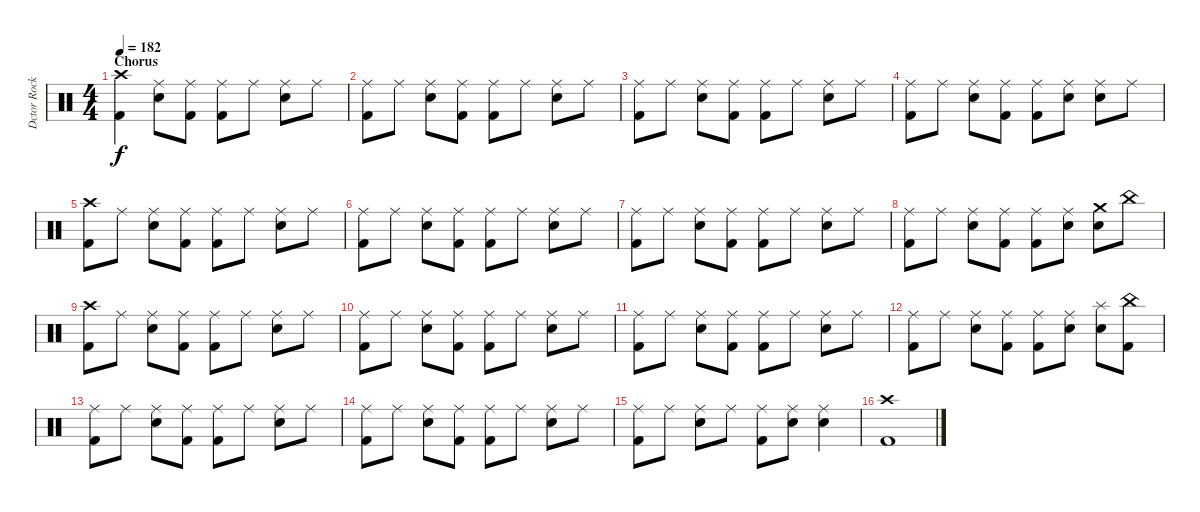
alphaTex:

\track ("Dctor Rock" "Dctor Rock") {instrument percussion}
\staff {score}
\articulation defaults
\ts (4 4)
\section ("" "Chorus")
\tempo 182
\clef neutral
\ks c
("Crash high (hit)" "Kick (hit) 2").4{dy f} ("Ride (middle)" "Snare (hit) 2").8 ("Ride (middle)" "Kick (hit) 2").8 ("Ride (middle)" "Kick (hit) 2").8 "Ride (middle)".8 ("Ride (middle)" "Snare (hit) 2").8 "Ride (middle)".8 |
("Ride (middle)" "Kick (hit) 2").8 "Ride (middle)".8 ("Ride (middle)" "Snare (hit) 2").8 ("Ride (middle)" "Kick (hit) 2").8 ("Ride (middle)" "Kick (hit) 2").8 "Ride (middle)".8 ("Ride (middle)" "Snare (hit) 2").8 "Ride (middle)".8 |
("Ride (middle)" "Kick (hit) 2").8 "Ride (middle)".8 ("Ride (middle)" "Snare (hit) 2").8 ("Ride (middle)" "Kick (hit) 2").8 ("Ride (middle)" "Kick (hit) 2").8 "Ride (middle)".8 ("Ride (middle)" "Snare (hit) 2").8 "Ride (middle)".8 |
("Ride (middle)" "Kick (hit) 2").8 "Ride (middle)".8 ("Ride (middle)" "Snare (hit) 2").8 ("Ride (middle)" "Kick (hit) 2").8 ("Ride (middle)" "Kick (hit) 2").8 ("Ride (middle)" "Snare (hit) 2").8 ("Ride (middle)" "Snare (hit) 2").8 "Ride (middle)".8 |
("Crash high (hit)" "Kick (hit) 2").8 "Ride (middle)".8 ("Ride (middle)" "Snare (hit) 2").8 ("Ride (middle)" "Kick (hit) 2").8 ("Ride (middle)" "Kick (hit) 2").8 "Ride (middle)".8 ("Ride (middle)" "Snare (hit) 2").8 "Ride (middle)".8 |
("Ride (middle)" "Kick (hit) 2").8 "Ride (middle)".8 ("Ride (middle)" "Snare (hit) 2").8 ("Ride (middle)" "Kick (hit) 2").8 ("Ride (middle)" "Kick (hit) 2").8 "Ride (middle)".8 ("Ride (middle)" "Snare (hit) 2").8 "Ride (middle)".8 |
("Ride (middle)" "Kick (hit) 2").8 "Ride (middle)".8 ("Ride (middle)" "Snare (hit) 2").8 ("Ride (middle)" "Kick (hit) 2").8 ("Ride (middle)" "Kick (hit) 2").8 "Ride (middle)".8 ("Ride (middle)" "Snare (hit) 2").8 "Ride (middle)".8 |
("Ride (middle)" "Kick (hit) 2").8 "Ride (middle)".8 ("Ride (middle)" "Snare (hit) 2").8 ("Ride (middle)" "Kick (hit) 2").8 ("Ride (middle)" "Kick (hit) 2").8 ("Ride (middle)" "Snare (hit) 2").8 ("Crash medium (hit)" "Snare (hit) 2").8 "China (hit)".8 |
("Crash high (hit)" "Kick (hit) 2").8 "Ride (middle)".8 ("Ride (middle)" "Snare (hit) 2").8 ("Ride (middle)" "Kick (hit) 2").8 ("Ride (middle)" "Kick (hit) 2").8 "Ride (middle)".8 ("Ride (middle)" "Snare (hit) 2").8 "Ride (middle)".8 |
("Ride (middle)" "Kick (hit) 2").8 "Ride (middle)".8 ("Ride (middle)" "Snare (hit) 2").8 ("Ride (middle)" "Kick (hit) 2").8 ("Ride (middle)" "Kick (hit) 2").8 "Ride (middle)".8 ("Ride (middle)" "Snare (hit) 2").8 "Ride (middle)".8 |
("Ride (middle)" "Kick (hit) 2").8 "Ride (middle)".8 ("Ride (middle)" "Snare (hit) 2").8 ("Ride (middle)" "Kick (hit) 2").8 ("Ride (middle)" "Kick (hit) 2").8 "Ride (middle)".8 ("Ride (middle)" "Snare (hit) 2").8 "Ride (middle)".8 |
("Ride (middle)" "Kick (hit) 2").8 "Ride (middle)".8 ("Ride (middle)" "Snare (hit) 2").8 ("Ride (middle)" "Kick (hit) 2").8 ("Ride (middle)" "Kick (hit) 2").8 ("Ride (middle)" "Snare (hit) 2").8 ("Splash (hit)" "Snare (hit) 2").8 ("China (hit)" "Kick (hit) 2").8 |
("Ride (middle)" "Kick (hit) 2").8 "Ride (middle)".8 ("Ride (middle)" "Snare (hit) 2").8 ("Ride (middle)" "Kick (hit) 2").8 ("Ride (middle)" "Kick (hit) 2").8 "Ride (middle)".8 ("Ride (middle)" "Snare (hit) 2").8 "Ride (middle)".8 |
("Ride (middle)" "Kick (hit) 2").8 "Ride (middle)".8 ("Ride (middle)" "Snare (hit) 2").8 ("Ride (middle)" "Kick (hit) 2").8 ("Ride (middle)" "Kick (hit) 2").8 "Ride (middle)".8 ("Ride (middle)" "Snare (hit) 2").8 "Ride (middle)".8 |
("Ride (middle)" "Kick (hit) 2").8 "Ride (middle)".8 ("Ride (middle)" "Snare (hit) 2").8 "Ride (middle)".8 ("Ride (middle)" "Kick (hit) 2").8 ("Ride (middle)" "Snare (hit) 2").8 ("Ride (middle)" "Snare (hit) 2").4 |
("Crash high (hit)" "Kick (hit) 2").1
